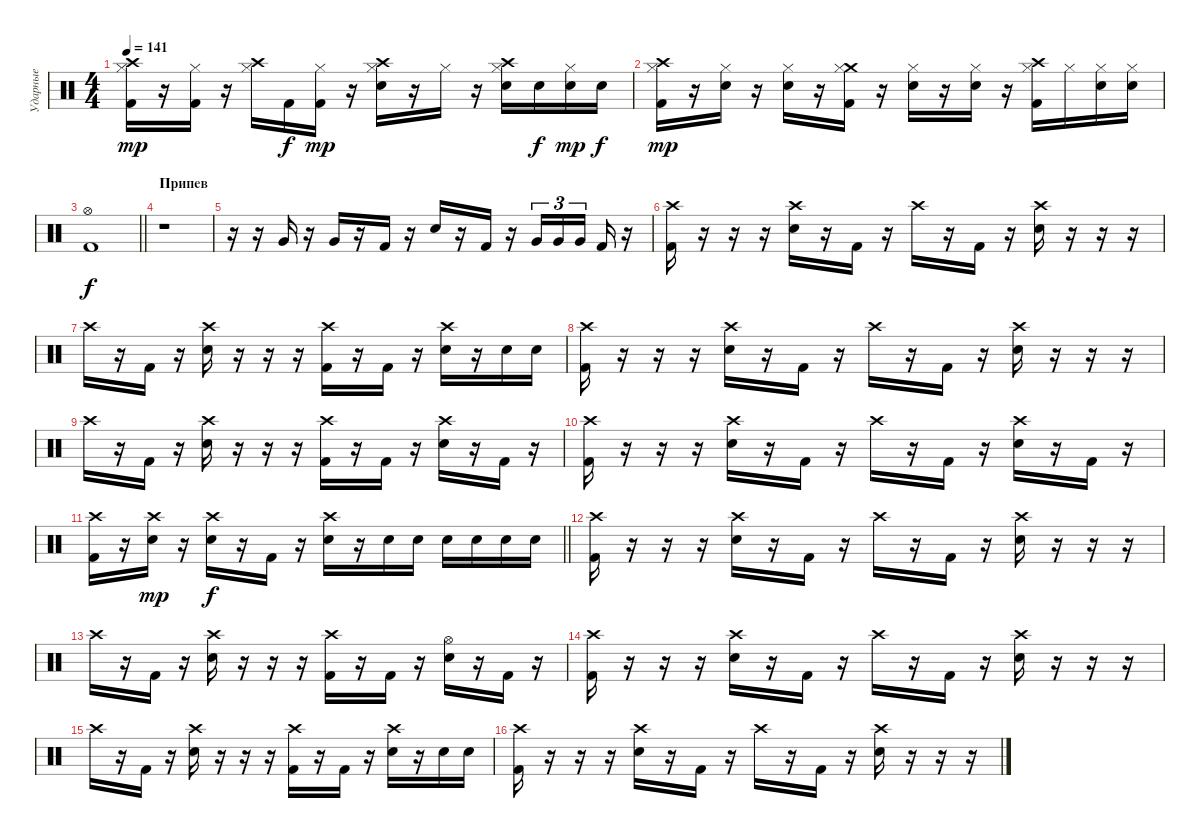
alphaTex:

\track ("Ударные" "Ударные") {instrument percussion}
\staff {score}
\articulation defaults
\ts (4 4)
\tempo 141
\clef neutral
\ks c
("Crash high (hit)" "Hi-Hat (closed)" "Kick (hit) 2").16{dy mp} r.16 ("Hi-Hat (closed)" "Kick (hit) 2").16 r.16 ("Crash high (hit)" "Hi-Hat (closed)").16 "Kick (hit) 2".16{dy f} ("Hi-Hat (closed)" "Kick (hit) 2").16{dy mp} r.16 ("Crash high (hit)" "Hi-Hat (closed)" "Electric Snare (hit)").16 r.16 "Hi-Hat (closed)".16 r.16 ("Crash high (hit)" "Hi-Hat (closed)" "Electric Snare (hit)").16 "Electric Snare (hit)".16{dy f} ("Hi-Hat (closed)" "Electric Snare (hit)").16{dy mp} "Electric Snare (hit)".16{dy f} |
("Crash high (hit)" "Hi-Hat (closed)" "Kick (hit) 2").16{dy mp} r.16 ("Hi-Hat (closed)" "Electric Snare (hit)").16 r.16 ("Hi-Hat (closed)" "Electric Snare (hit)").16 r.16 ("Crash medium (hit)" "Hi-Hat (closed)" "Kick (hit) 2").16 r.16 ("Hi-Hat (closed)" "Electric Snare (hit)").16 r.16 ("Hi-Hat (closed)" "Electric Snare (hit)").16 r.16 ("Crash high (hit)" "Hi-Hat (closed)" "Kick (hit) 2").16 "Hi-Hat (closed)".16 ("Hi-Hat (closed)" "Electric Snare (hit)").16 ("Hi-Hat (closed)" "Electric Snare (hit)").16 |
\barLineRight lightlight
("Hi-Hat (open)" "Kick (hit) 2").1{dy f} |
\section ("" "Припев")
r.1 |
r.16 r.16 "Very Low Tom (hit)".16 r.16 "Very Low Tom (hit)".16 r.16 "Kick (hit) 2".16 r.16 "Electric Snare (hit)".16 r.16 "Kick (hit) 2".16 r.16 "Very Low Tom (hit)".16{tu (3 2)} "Very Low Tom (hit)".16{tu (3 2)} "Very Low Tom (hit)".16{tu (3 2) beam splitsecondary} "Kick (hit) 2".16 r.16 |
("Crash high (hit)" "Kick (hit) 2").16 r.16 r.16 r.16 ("Crash high (hit)" "Electric Snare (hit)").16 r.16 "Kick (hit) 2".16 r.16 "Crash high (hit)".16 r.16 "Kick (hit) 2".16 r.16 ("Crash high (hit)" "Electric Snare (hit)").16 r.16 r.16 r.16 |
"Crash high (hit)".16 r.16 "Kick (hit) 2".16 r.16 ("Crash high (hit)" "Electric Snare (hit)").16 r.16 r.16 r.16 ("Crash high (hit)" "Kick (hit) 2").16 r.16 "Kick (hit) 2".16 r.16 ("Crash high (hit)" "Electric Snare (hit)").16 r.16 "Electric Snare (hit)".16 "Electric Snare (hit)".16 |
("Crash high (hit)" "Kick (hit) 2").16 r.16 r.16 r.16 ("Crash high (hit)" "Electric Snare (hit)").16 r.16 "Kick (hit) 2".16 r.16 "Crash high (hit)".16 r.16 "Kick (hit) 2".16 r.16 ("Crash high (hit)" "Electric Snare (hit)").16 r.16 r.16 r.16 |
"Crash high (hit)".16 r.16 "Kick (hit) 2".16 r.16 ("Crash high (hit)" "Electric Snare (hit)").16 r.16 r.16 r.16 ("Crash high (hit)" "Kick (hit) 2").16 r.16 "Kick (hit) 2".16 r.16 ("Crash high (hit)" "Electric Snare (hit)").16 r.16 "Kick (hit) 2".16 r.16 |
("Crash high (hit)" "Kick (hit) 2").16 r.16 r.16 r.16 ("Crash high (hit)" "Electric Snare (hit)").16 r.16 "Kick (hit) 2".16 r.16 "Crash high (hit)".16 r.16 "Kick (hit) 2".16 r.16 ("Crash high (hit)" "Electric Snare (hit)").16 r.16 "Kick (hit) 2".16 r.16 |
\barLineRight lightlight
("Crash high (hit)" "Kick (hit) 2").16 r.16 ("Crash high (hit)" "Electric Snare (hit)").16{dy mp} r.16 ("Crash high (hit)" "Electric Snare (hit)").16{dy f} r.16 "Kick (hit) 2".16 r.16 ("Crash high (hit)" "Electric Snare (hit)").16 r.16 "Electric Snare (hit)".16 "Electric Snare (hit)".16 "Electric Snare (hit)".16 "Electric Snare (hit)".16 "Electric Snare (hit)".16 "Electric Snare (hit)".16 |
\section ("" "")
("Crash high (hit)" "Kick (hit) 2").16 r.16 r.16 r.16 ("Crash high (hit)" "Electric Snare (hit)").16 r.16 "Kick (hit) 2".16 r.16 "Crash high (hit)".16 r.16 "Kick (hit) 2".16 r.16 ("Crash high (hit)" "Electric Snare (hit)").16 r.16 r.16 r.16 |
"Crash high (hit)".16 r.16 "Kick (hit) 2".16 r.16 ("Crash high (hit)" "Electric Snare (hit)").16 r.16 r.16 r.16 ("Crash high (hit)" "Kick (hit) 2").16 r.16 "Kick (hit) 2".16 r.16 ("Hi-Hat (open)" "Electric Snare (hit)").16 r.16 "Kick (hit) 2".16 r.16 |
("Crash high (hit)" "Kick (hit) 2").16 r.16 r.16 r.16 ("Crash high (hit)" "Electric Snare (hit)").16 r.16 "Kick (hit) 2".16 r.16 "Crash high (hit)".16 r.16 "Kick (hit) 2".16 r.16 ("Crash high (hit)" "Electric Snare (hit)").16 r.16 r.16 r.16 |
"Crash high (hit)".16 r.16 "Kick (hit) 2".16 r.16 ("Crash high (hit)" "Electric Snare (hit)").16 r.16 r.16 r.16 ("Crash high (hit)" "Kick (hit) 2").16 r.16 "Kick (hit) 2".16 r.16 ("Crash high (hit)" "Electric Snare (hit)").16 r.16 "Electric Snare (hit)".16 "Electric Snare (hit)".16 |
("Crash high (hit)" "Kick (hit) 2").16 r.16 r.16 r.16 ("Crash high (hit)" "Electric Snare (hit)").16 r.16 "Kick (hit) 2".16 r.16 "Crash high (hit)".16 r.16 "Kick (hit) 2".16 r.16 ("Crash high (hit)" "Electric Snare (hit)").16 r.16 r.16 r.16
